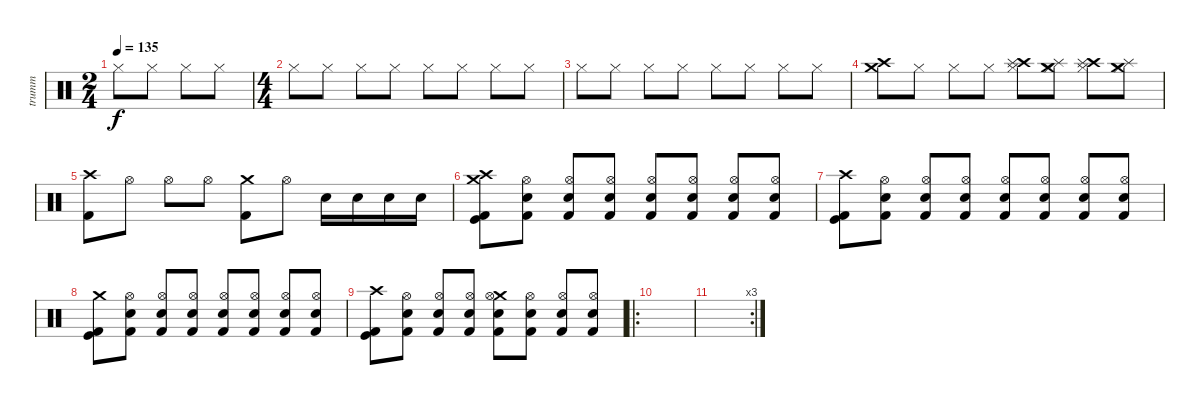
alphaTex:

\track ("trumm" "trumm") {instrument percussion}
\staff {score}
\articulation defaults
\ts (2 4)
\tempo 135
\clef neutral
\ks c "Hi-Hat (closed)".8{dy f} "Hi-Hat (closed)".8 "Hi-Hat (closed)".8 "Hi-Hat (closed)".8
|
\ts (4 4)
"Hi-Hat (closed)".8 "Hi-Hat (closed)".8 "Hi-Hat (closed)".8 "Hi-Hat (closed)".8 "Hi-Hat (closed)".8 "Hi-Hat (closed)".8 "Hi-Hat (closed)".8 "Hi-Hat (closed)".8 |
"Hi-Hat (closed)".8 "Hi-Hat (closed)".8 "Hi-Hat (closed)".8 "Hi-Hat (closed)".8 "Hi-Hat (closed)".8 "Hi-Hat (closed)".8 "Hi-Hat (closed)".8 "Hi-Hat (closed)".8 |
("Crash medium (hit)" "Crash high (hit)").8 "Hi-Hat (closed)".8 "Hi-Hat (closed)".8 "Hi-Hat (closed)".8 ("Hi-Hat (closed)" "Crash high (hit)" "Splash (hit)").8 ("Hi-Hat (closed)" "Crash medium (hit)" "Splash (hit)").8 ("Hi-Hat (closed)" "Crash high (hit)" "Splash (hit)").8 ("Hi-Hat (closed)" "Crash medium (hit)" "Splash (hit)").8 |
("Crash high (hit)" "Kick (hit) 2").8 "Hi-Hat (open)".8 "Hi-Hat (open)".8 "Hi-Hat (open)".8 ("Crash medium (hit)" "Kick (hit) 2").8 "Hi-Hat (open)".8 "Snare (hit) 2".16 "Snare (hit) 2".16 "Electric Snare (hit)".16 "Electric Snare (hit)".16 |
("Crash high (hit)" "Crash medium (hit)" "Kick (hit)" "Kick (hit) 2").8 ("Hi-Hat (open)" "Electric Snare (hit)" "Kick (hit) 2").8 ("Hi-Hat (open)" "Electric Snare (hit)" "Kick (hit) 2").8 ("Hi-Hat (open)" "Electric Snare (hit)" "Kick (hit) 2").8 ("Hi-Hat (open)" "Electric Snare (hit)" "Kick (hit) 2").8 ("Hi-Hat (open)" "Electric Snare (hit)" "Kick (hit) 2").8 ("Hi-Hat (open)" "Electric Snare (hit)" "Kick (hit) 2").8 ("Hi-Hat (open)" "Electric Snare (hit)" "Kick (hit) 2").8 |
("Crash high (hit)" "Kick (hit)" "Kick (hit) 2").8 ("Hi-Hat (open)" "Electric Snare (hit)" "Kick (hit) 2").8 ("Hi-Hat (open)" "Electric Snare (hit)" "Kick (hit) 2").8 ("Hi-Hat (open)" "Electric Snare (hit)" "Kick (hit) 2").8 ("Hi-Hat (open)" "Electric Snare (hit)" "Kick (hit) 2").8 ("Hi-Hat (open)" "Electric Snare (hit)" "Kick (hit) 2").8 ("Hi-Hat (open)" "Electric Snare (hit)" "Kick (hit) 2").8 ("Hi-Hat (open)" "Electric Snare (hit)" "Kick (hit) 2").8 |
("Crash medium (hit)" "Kick (hit)" "Kick (hit) 2").8 ("Hi-Hat (open)" "Electric Snare (hit)" "Kick (hit) 2").8 ("Hi-Hat (open)" "Electric Snare (hit)" "Kick (hit) 2").8 ("Hi-Hat (open)" "Electric Snare (hit)" "Kick (hit) 2").8 ("Hi-Hat (open)" "Electric Snare (hit)" "Kick (hit) 2").8 ("Hi-Hat (open)" "Electric Snare (hit)" "Kick (hit) 2").8 ("Hi-Hat (open)" "Electric Snare (hit)" "Kick (hit) 2").8 ("Hi-Hat (open)" "Electric Snare (hit)" "Kick (hit) 2").8 |
("Crash high (hit)" "Kick (hit)" "Kick (hit) 2").8 ("Hi-Hat (open)" "Electric Snare (hit)" "Kick (hit) 2").8 ("Hi-Hat (open)" "Electric Snare (hit)" "Kick (hit) 2").8 ("Hi-Hat (open)" "Electric Snare (hit)" "Kick (hit) 2").8 ("Crash medium (hit)" "Hi-Hat (open)" "Electric Snare (hit)" "Kick (hit) 2").8 ("Hi-Hat (open)" "Electric Snare (hit)" "Kick (hit) 2").8 ("Hi-Hat (open)" "Electric Snare (hit)" "Kick (hit) 2").8 ("Hi-Hat (open)" "Electric Snare (hit)" "Kick (hit) 2").8 |
\ro
|
\rc 3
